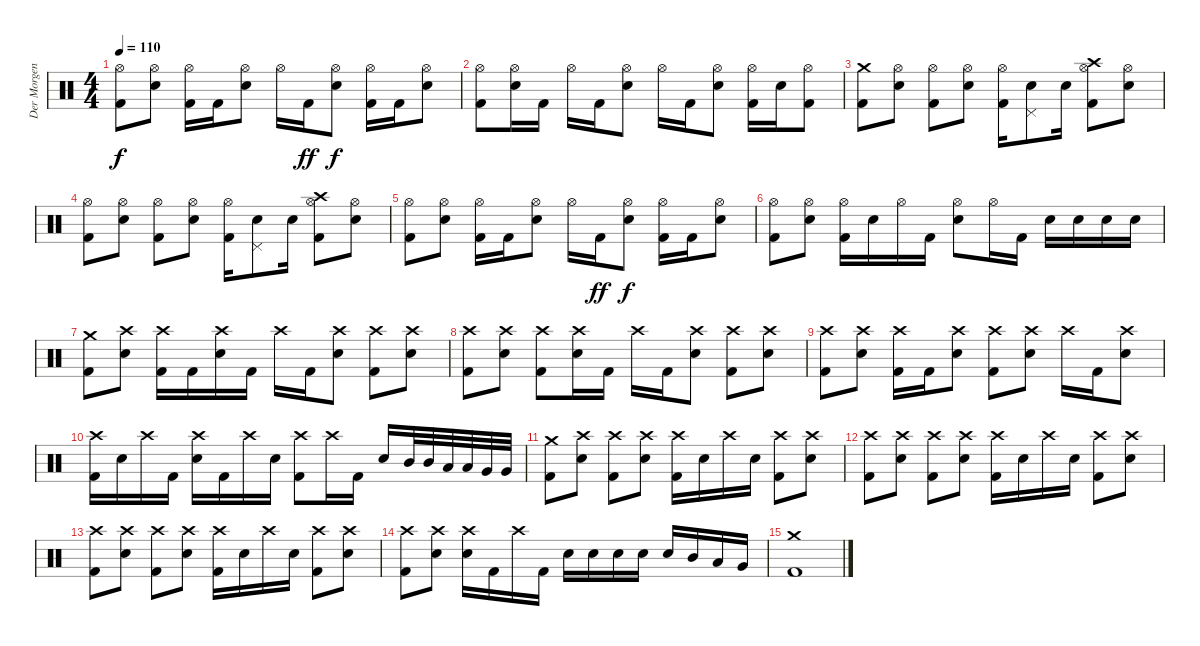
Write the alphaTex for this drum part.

\track ("Der Morgenstern" "Der Morgen") {instrument percussion}
\staff {score}
\articulation defaults
\ts (4 4)
\tempo 110
\clef neutral
\ks c
("Hi-Hat (open)" "Kick (hit) 2").8{dy f} ("Hi-Hat (open)" "Electric Snare (hit)").8 ("Hi-Hat (open)" "Kick (hit) 2").16 "Kick (hit) 2".16 ("Hi-Hat (open)" "Electric Snare (hit)").8 "Hi-Hat (open)".16 "Kick (hit) 2".16{dy ff} ("Hi-Hat (open)" "Electric Snare (hit)").8{dy f} ("Hi-Hat (open)" "Kick (hit) 2").16 "Kick (hit) 2".16 ("Hi-Hat (open)" "Electric Snare (hit)").8 |
("Hi-Hat (open)" "Kick (hit) 2").8 ("Hi-Hat (open)" "Electric Snare (hit)").16 "Kick (hit) 2".16 "Hi-Hat (open)".16 "Kick (hit) 2".16 ("Hi-Hat (open)" "Electric Snare (hit)").8 "Hi-Hat (open)".16 "Kick (hit) 2".16 ("Hi-Hat (open)" "Electric Snare (hit)").8 ("Hi-Hat (open)" "Kick (hit) 2").16 "Electric Snare (hit)".16 ("Hi-Hat (open)" "Kick (hit) 2").8 |
("Crash medium (hit)" "Kick (hit) 2").8 ("Hi-Hat (open)" "Electric Snare (hit)").8 ("Hi-Hat (open)" "Kick (hit) 2").8 ("Hi-Hat (open)" "Electric Snare (hit)").8 ("Hi-Hat (open)" "Kick (hit) 2").16 ("Pedal Hi-Hat (hit)" "Electric Snare (hit)").8 "Electric Snare (hit)".16 ("Crash high (hit)" "Hi-Hat (open)" "Kick (hit) 2").8 ("Hi-Hat (open)" "Electric Snare (hit)").8 |
("Hi-Hat (open)" "Kick (hit) 2").8 ("Hi-Hat (open)" "Electric Snare (hit)").8 ("Hi-Hat (open)" "Kick (hit) 2").8 ("Hi-Hat (open)" "Electric Snare (hit)").8 ("Hi-Hat (open)" "Kick (hit) 2").16 ("Pedal Hi-Hat (hit)" "Electric Snare (hit)").8 "Electric Snare (hit)".16 ("Crash high (hit)" "Hi-Hat (open)" "Kick (hit) 2").8 ("Hi-Hat (open)" "Electric Snare (hit)").8 |
("Hi-Hat (open)" "Kick (hit) 2").8 ("Hi-Hat (open)" "Electric Snare (hit)").8 ("Hi-Hat (open)" "Kick (hit) 2").16 "Kick (hit) 2".16 ("Hi-Hat (open)" "Electric Snare (hit)").8 "Hi-Hat (open)".16 "Kick (hit) 2".16{dy ff} ("Hi-Hat (open)" "Electric Snare (hit)").8{dy f} ("Hi-Hat (open)" "Kick (hit) 2").16 "Kick (hit) 2".16 ("Hi-Hat (open)" "Electric Snare (hit)").8 |
("Hi-Hat (open)" "Kick (hit) 2").8 ("Hi-Hat (open)" "Electric Snare (hit)").8 ("Hi-Hat (open)" "Kick (hit) 2").16 "Electric Snare (hit)".16 "Hi-Hat (open)".16 "Kick (hit) 2".16 ("Hi-Hat (open)" "Electric Snare (hit)").8 "Hi-Hat (open)".16 "Kick (hit) 2".16 "Electric Snare (hit)".16 "Electric Snare (hit)".16 "Electric Snare (hit)".16 "Electric Snare (hit)".16 |
("Crash medium (hit)" "Kick (hit) 2").8 ("Crash high (hit)" "Electric Snare (hit)").8 ("Crash high (hit)" "Kick (hit) 2").16 "Kick (hit) 2".16 ("Crash high (hit)" "Electric Snare (hit)").16 "Kick (hit) 2".16 "Crash high (hit)".16 "Kick (hit) 2".16 ("Crash high (hit)" "Electric Snare (hit)").8 ("Crash high (hit)" "Kick (hit) 2").8 ("Crash high (hit)" "Electric Snare (hit)").8 |
("Crash high (hit)" "Kick (hit) 2").8 ("Crash high (hit)" "Electric Snare (hit)").8 ("Crash high (hit)" "Kick (hit) 2").8 ("Crash high (hit)" "Electric Snare (hit)").16 "Kick (hit) 2".16 "Crash high (hit)".16 "Kick (hit) 2".16 ("Crash high (hit)" "Electric Snare (hit)").8 ("Crash high (hit)" "Kick (hit) 2").8 ("Crash high (hit)" "Electric Snare (hit)").8 |
("Crash high (hit)" "Kick (hit) 2").8 ("Crash high (hit)" "Electric Snare (hit)").8 ("Crash high (hit)" "Kick (hit) 2").16 "Kick (hit) 2".16 ("Crash high (hit)" "Electric Snare (hit)").8 ("Crash high (hit)" "Kick (hit) 2").8 ("Crash high (hit)" "Electric Snare (hit)").8 "Crash high (hit)".16 "Kick (hit) 2".16 ("Crash high (hit)" "Electric Snare (hit)").8 |
("Crash high (hit)" "Kick (hit) 2").16 "Electric Snare (hit)".16 "Crash high (hit)".16 "Kick (hit) 2".16 ("Crash high (hit)" "Electric Snare (hit)").16 "Kick (hit) 2".16 "Crash high (hit)".16 "Electric Snare (hit)".16 ("Crash high (hit)" "Kick (hit) 2").8 "Crash high (hit)".16 "Kick (hit) 2".16 "Electric Snare (hit)".16 "Mid Tom (hit)".32 "Mid Tom (hit)".32 "Low Tom (hit)".32 "Low Tom (hit)".32 "Very Low Tom (hit)".32 "Very Low Tom (hit)".32 |
("Crash medium (hit)" "Kick (hit) 2").8 ("Crash high (hit)" "Electric Snare (hit)").8 ("Crash high (hit)" "Kick (hit) 2").8 ("Crash high (hit)" "Electric Snare (hit)").8 ("Crash high (hit)" "Kick (hit) 2").16 "Electric Snare (hit)".16 "Crash high (hit)".16 "Electric Snare (hit)".16 ("Crash high (hit)" "Kick (hit) 2").8 ("Crash high (hit)" "Electric Snare (hit)").8 |
("Crash high (hit)" "Kick (hit) 2").8 ("Crash high (hit)" "Electric Snare (hit)").8 ("Crash high (hit)" "Kick (hit) 2").8 ("Crash high (hit)" "Electric Snare (hit)").8 ("Crash high (hit)" "Kick (hit) 2").16 "Electric Snare (hit)".16 "Crash high (hit)".16 "Electric Snare (hit)".16 ("Crash high (hit)" "Kick (hit) 2").8 ("Crash high (hit)" "Electric Snare (hit)").8 |
("Crash high (hit)" "Kick (hit) 2").8 ("Crash high (hit)" "Electric Snare (hit)").8 ("Crash high (hit)" "Kick (hit) 2").8 ("Crash high (hit)" "Electric Snare (hit)").8 ("Crash high (hit)" "Kick (hit) 2").16 "Electric Snare (hit)".16 "Crash high (hit)".16 "Electric Snare (hit)".16 ("Crash high (hit)" "Kick (hit) 2").8 ("Crash high (hit)" "Electric Snare (hit)").8 |
("Crash high (hit)" "Kick (hit) 2").8 ("Crash high (hit)" "Electric Snare (hit)").8 ("Crash high (hit)" "Electric Snare (hit)").16 "Kick (hit) 2".16 "Crash high (hit)".16 "Kick (hit) 2".16 "Electric Snare (hit)".16 "Electric Snare (hit)".16 "Electric Snare (hit)".16 "Electric Snare (hit)".16 "Electric Snare (hit)".16 "Mid Tom (hit)".16 "Low Tom (hit)".16 "Very Low Tom (hit)".16 |
("Crash medium (hit)" "Kick (hit) 2").1
